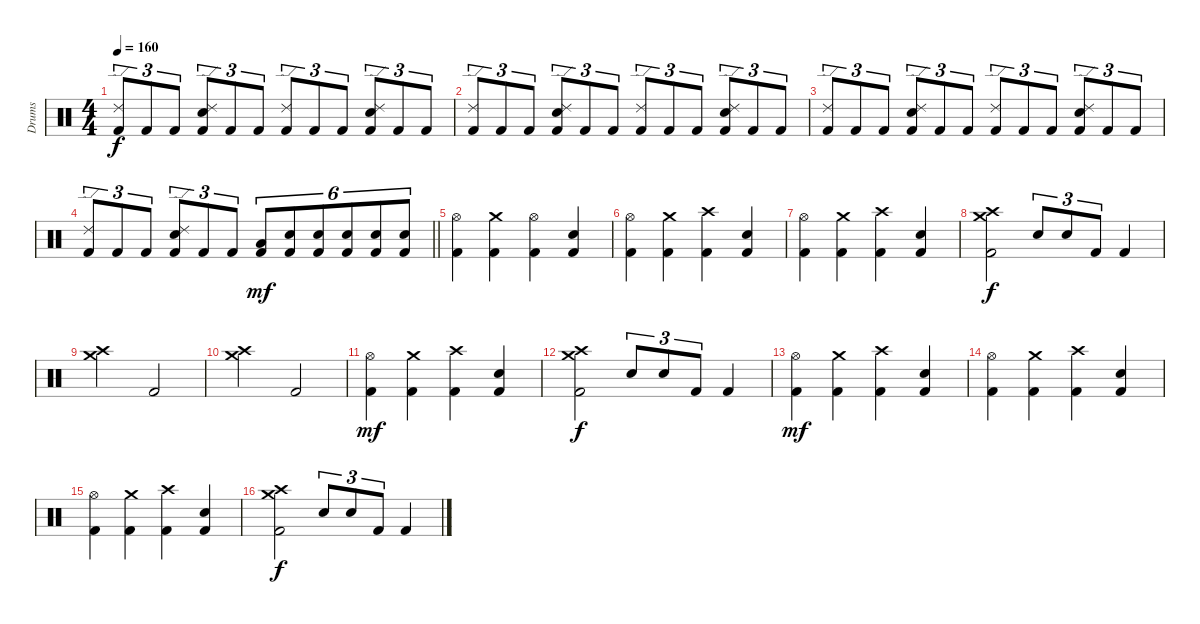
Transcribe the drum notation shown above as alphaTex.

\track ("Drums" "Drums") {instrument percussion}
\staff {score}
\articulation defaults
\ts (4 4)
\tempo 160
\clef neutral
\ks c
("Ride (edge) 2" "Kick (hit) 2").8{tu (3 2) dy f} "Kick (hit) 2".8{tu (3 2)} "Kick (hit) 2".8{tu (3 2)} ("Ride (edge) 2" "Snare (hit) 2" "Kick (hit) 2").8{tu (3 2)} "Kick (hit) 2".8{tu (3 2)} "Kick (hit) 2".8{tu (3 2)} ("Ride (edge) 2" "Kick (hit) 2").8{tu (3 2)} "Kick (hit) 2".8{tu (3 2)} "Kick (hit) 2".8{tu (3 2)} ("Ride (edge) 2" "Snare (hit) 2" "Kick (hit) 2").8{tu (3 2)} "Kick (hit) 2".8{tu (3 2)} "Kick (hit) 2".8{tu (3 2)} |
("Ride (edge) 2" "Kick (hit) 2").8{tu (3 2)} "Kick (hit) 2".8{tu (3 2)} "Kick (hit) 2".8{tu (3 2)} ("Ride (edge) 2" "Snare (hit) 2" "Kick (hit) 2").8{tu (3 2)} "Kick (hit) 2".8{tu (3 2)} "Kick (hit) 2".8{tu (3 2)} ("Ride (edge) 2" "Kick (hit) 2").8{tu (3 2)} "Kick (hit) 2".8{tu (3 2)} "Kick (hit) 2".8{tu (3 2)} ("Ride (edge) 2" "Snare (hit) 2" "Kick (hit) 2").8{tu (3 2)} "Kick (hit) 2".8{tu (3 2)} "Kick (hit) 2".8{tu (3 2)} |
("Ride (edge) 2" "Kick (hit) 2").8{tu (3 2)} "Kick (hit) 2".8{tu (3 2)} "Kick (hit) 2".8{tu (3 2)} ("Ride (edge) 2" "Snare (hit) 2" "Kick (hit) 2").8{tu (3 2)} "Kick (hit) 2".8{tu (3 2)} "Kick (hit) 2".8{tu (3 2)} ("Ride (edge) 2" "Kick (hit) 2").8{tu (3 2)} "Kick (hit) 2".8{tu (3 2)} "Kick (hit) 2".8{tu (3 2)} ("Ride (edge) 2" "Snare (hit) 2" "Kick (hit) 2").8{tu (3 2)} "Kick (hit) 2".8{tu (3 2)} "Kick (hit) 2".8{tu (3 2)} |
\barLineRight lightlight
("Ride (edge) 2" "Kick (hit) 2").8{tu (3 2)} "Kick (hit) 2".8{tu (3 2)} "Kick (hit) 2".8{tu (3 2)} ("Ride (edge) 2" "Snare (hit) 2" "Kick (hit) 2").8{tu (3 2)} "Kick (hit) 2".8{tu (3 2)} "Kick (hit) 2".8{tu (3 2)} ("Low Tom (hit)" "Kick (hit) 2").8{tu (6 4) dy mf} ("Snare (hit) 2" "Kick (hit) 2").8{tu (6 4)} ("Snare (hit) 2" "Kick (hit) 2").8{tu (6 4)} ("Snare (hit) 2" "Kick (hit) 2").8{tu (6 4)} ("Snare (hit) 2" "Kick (hit) 2").8{tu (6 4)} ("Snare (hit) 2" "Kick (hit) 2").8{tu (6 4)} |
("Hi-Hat (open)" "Kick (hit) 2").4 ("Crash medium (hit)" "Kick (hit) 2").4 ("Hi-Hat (open)" "Kick (hit) 2").4 ("Snare (hit) 2" "Kick (hit) 2").4 |
("Hi-Hat (open)" "Kick (hit) 2").4 ("Crash medium (hit)" "Kick (hit) 2").4 ("Crash high (hit)" "Kick (hit) 2").4 ("Snare (hit) 2" "Kick (hit) 2").4 |
("Hi-Hat (open)" "Kick (hit) 2").4 ("Crash medium (hit)" "Kick (hit) 2").4 ("Crash high (hit)" "Kick (hit) 2").4 ("Snare (hit) 2" "Kick (hit) 2").4 |
("Crash high (hit)" "Crash medium (hit)" "Kick (hit) 2").2{dy f} "Snare (hit) 2".8{tu (3 2)} "Snare (hit) 2".8{tu (3 2)} "Kick (hit) 2".8{tu (3 2)} "Kick (hit) 2".4 |
("Crash medium (hit)" "Crash high (hit)").2 "Kick (hit) 2".2 |
("Crash medium (hit)" "Crash high (hit)").2 "Kick (hit) 2".2 |
("Hi-Hat (open)" "Kick (hit) 2").4{dy mf} ("Crash medium (hit)" "Kick (hit) 2").4 ("Crash high (hit)" "Kick (hit) 2").4 ("Snare (hit) 2" "Kick (hit) 2").4 |
("Crash high (hit)" "Crash medium (hit)" "Kick (hit) 2").2{dy f} "Snare (hit) 2".8{tu (3 2)} "Snare (hit) 2".8{tu (3 2)} "Kick (hit) 2".8{tu (3 2)} "Kick (hit) 2".4 |
("Hi-Hat (open)" "Kick (hit) 2").4{dy mf} ("Crash medium (hit)" "Kick (hit) 2").4 ("Crash high (hit)" "Kick (hit) 2").4 ("Snare (hit) 2" "Kick (hit) 2").4 |
("Hi-Hat (open)" "Kick (hit) 2").4 ("Crash medium (hit)" "Kick (hit) 2").4 ("Crash high (hit)" "Kick (hit) 2").4 ("Snare (hit) 2" "Kick (hit) 2").4 |
("Hi-Hat (open)" "Kick (hit) 2").4 ("Crash medium (hit)" "Kick (hit) 2").4 ("Crash high (hit)" "Kick (hit) 2").4 ("Snare (hit) 2" "Kick (hit) 2").4 |
("Crash high (hit)" "Crash medium (hit)" "Kick (hit) 2").2{dy f} "Snare (hit) 2".8{tu (3 2)} "Snare (hit) 2".8{tu (3 2)} "Kick (hit) 2".8{tu (3 2)} "Kick (hit) 2".4
